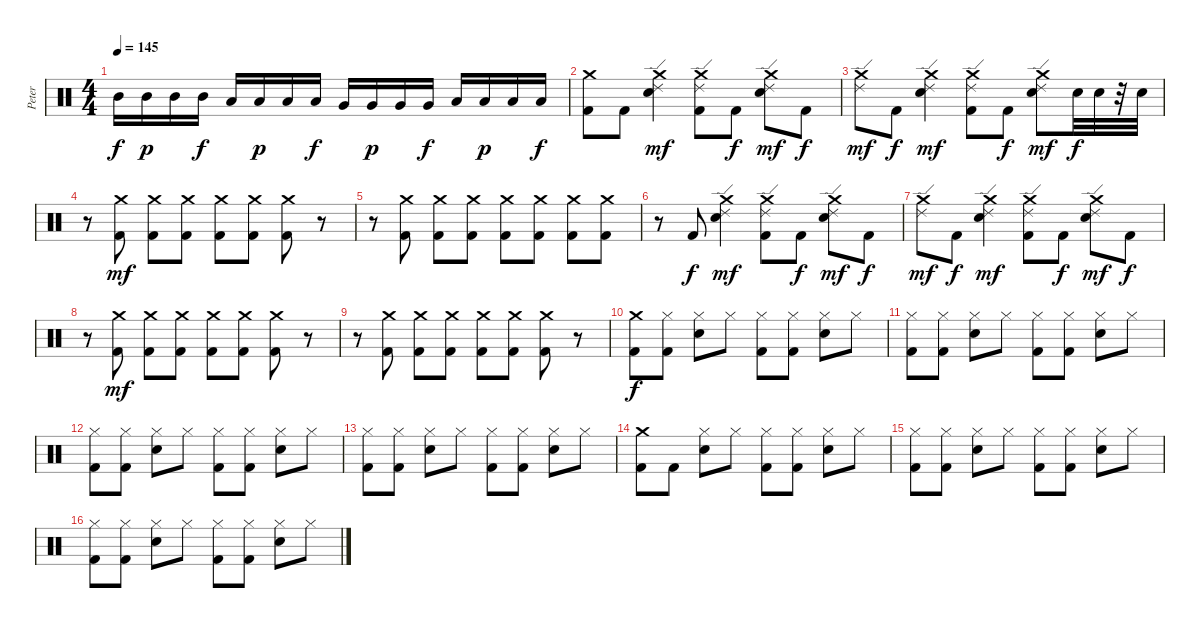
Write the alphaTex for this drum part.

\track ("Peter" "Peter") {instrument percussion}
\staff {score}
\articulation defaults
\ts (4 4)
\tempo 145
\clef neutral
\ks c "Mid Tom (hit)".16{dy f} "Mid Tom (hit)".16{dy p} "Mid Tom (hit)".16 "Mid Tom (hit)".16{dy f} "Low Tom (hit)".16 "Low Tom (hit)".16{dy p} "Low Tom (hit)".16 "Low Tom (hit)".16{dy f} "Very Low Tom (hit)".16 "Very Low Tom (hit)".16{dy p} "Very Low Tom (hit)".16 "Very Low Tom (hit)".16{dy f} "Low Floor Tom (hit)".16 "Low Floor Tom (hit)".16{dy p} "Low Floor Tom (hit)".16 "Low Floor Tom (hit)".16{dy f}
|
("Crash medium (hit)" "Kick (hit) 2").8 "Kick (hit) 2".8 ("Ride (edge) 2" "Crash medium (hit)" "Electric Snare (hit)").4{dy mf} ("Ride (edge) 2" "Crash medium (hit)" "Kick (hit) 2").8 "Kick (hit) 2".8{dy f} ("Ride (edge) 2" "Crash medium (hit)" "Electric Snare (hit)").8{dy mf} "Kick (hit) 2".8{dy f} |
("Ride (edge) 2" "Crash medium (hit)").8{dy mf} "Kick (hit) 2".8{dy f} ("Ride (edge) 2" "Crash medium (hit)" "Electric Snare (hit)").4{dy mf} ("Ride (edge) 2" "Crash medium (hit)" "Kick (hit) 2").8 "Kick (hit) 2".8{dy f} ("Ride (edge) 2" "Crash medium (hit)" "Electric Snare (hit)").8{dy mf} "Electric Snare (hit)".32{dy f} "Electric Snare (hit)".32 r.32 "Electric Snare (hit)".32 |
r.8 ("Crash medium (hit)" "Kick (hit) 2").8{dy mf} ("Crash medium (hit)" "Kick (hit) 2").8 ("Crash medium (hit)" "Kick (hit) 2").8 ("Crash medium (hit)" "Kick (hit) 2").8 ("Crash medium (hit)" "Kick (hit) 2").8 ("Crash medium (hit)" "Kick (hit) 2").8 r.8 |
r.8 ("Crash medium (hit)" "Kick (hit) 2").8 ("Crash medium (hit)" "Kick (hit) 2").8 ("Crash medium (hit)" "Kick (hit) 2").8 ("Crash medium (hit)" "Kick (hit) 2").8 ("Crash medium (hit)" "Kick (hit) 2").8 ("Crash medium (hit)" "Kick (hit) 2").8 ("Crash medium (hit)" "Kick (hit) 2").8 |
r.8 "Kick (hit) 2".8{dy f} ("Ride (edge) 2" "Crash medium (hit)" "Electric Snare (hit)").4{dy mf} ("Ride (edge) 2" "Crash medium (hit)" "Kick (hit) 2").8 "Kick (hit) 2".8{dy f} ("Ride (edge) 2" "Crash medium (hit)" "Electric Snare (hit)").8{dy mf} "Kick (hit) 2".8{dy f} |
("Ride (edge) 2" "Crash medium (hit)").8{dy mf} "Kick (hit) 2".8{dy f} ("Ride (edge) 2" "Crash medium (hit)" "Electric Snare (hit)").4{dy mf} ("Ride (edge) 2" "Crash medium (hit)" "Kick (hit) 2").8 "Kick (hit) 2".8{dy f} ("Ride (edge) 2" "Crash medium (hit)" "Electric Snare (hit)").8{dy mf} "Kick (hit) 2".8{dy f} |
r.8 ("Crash medium (hit)" "Kick (hit) 2").8{dy mf} ("Crash medium (hit)" "Kick (hit) 2").8 ("Crash medium (hit)" "Kick (hit) 2").8 ("Crash medium (hit)" "Kick (hit) 2").8 ("Crash medium (hit)" "Kick (hit) 2").8 ("Crash medium (hit)" "Kick (hit) 2").8 r.8 |
r.8 ("Crash medium (hit)" "Kick (hit) 2").8 ("Crash medium (hit)" "Kick (hit) 2").8 ("Crash medium (hit)" "Kick (hit) 2").8 ("Crash medium (hit)" "Kick (hit) 2").8 ("Crash medium (hit)" "Kick (hit) 2").8 ("Crash medium (hit)" "Kick (hit) 2").8 r.8 |
("Crash medium (hit)" "Kick (hit) 2").8{dy f} ("Hi-Hat (closed)" "Kick (hit) 2").8 ("Hi-Hat (closed)" "Electric Snare (hit)").8 "Hi-Hat (closed)".8 ("Hi-Hat (closed)" "Kick (hit) 2").8 ("Hi-Hat (closed)" "Kick (hit) 2").8 ("Hi-Hat (closed)" "Electric Snare (hit)").8 "Hi-Hat (closed)".8 |
("Hi-Hat (closed)" "Kick (hit) 2").8 ("Hi-Hat (closed)" "Kick (hit) 2").8 ("Hi-Hat (closed)" "Electric Snare (hit)").8 "Hi-Hat (closed)".8 ("Hi-Hat (closed)" "Kick (hit) 2").8 ("Hi-Hat (closed)" "Kick (hit) 2").8 ("Hi-Hat (closed)" "Electric Snare (hit)").8 "Hi-Hat (closed)".8 |
("Hi-Hat (closed)" "Kick (hit) 2").8 ("Hi-Hat (closed)" "Kick (hit) 2").8 ("Hi-Hat (closed)" "Electric Snare (hit)").8 "Hi-Hat (closed)".8 ("Hi-Hat (closed)" "Kick (hit) 2").8 ("Hi-Hat (closed)" "Kick (hit) 2").8 ("Hi-Hat (closed)" "Electric Snare (hit)").8 "Hi-Hat (closed)".8 |
("Hi-Hat (closed)" "Kick (hit) 2").8 ("Hi-Hat (closed)" "Kick (hit) 2").8 ("Hi-Hat (closed)" "Electric Snare (hit)").8 "Hi-Hat (closed)".8 ("Hi-Hat (closed)" "Kick (hit) 2").8 ("Hi-Hat (closed)" "Kick (hit) 2").8 ("Hi-Hat (closed)" "Electric Snare (hit)").8 "Hi-Hat (closed)".8 |
("Crash medium (hit)" "Kick (hit) 2").8 "Kick (hit) 2".8 ("Hi-Hat (closed)" "Electric Snare (hit)").8 "Hi-Hat (closed)".8 ("Hi-Hat (closed)" "Kick (hit) 2").8 ("Hi-Hat (closed)" "Kick (hit) 2").8 ("Hi-Hat (closed)" "Electric Snare (hit)").8 "Hi-Hat (closed)".8 |
("Hi-Hat (closed)" "Kick (hit) 2").8 ("Hi-Hat (closed)" "Kick (hit) 2").8 ("Hi-Hat (closed)" "Electric Snare (hit)").8 "Hi-Hat (closed)".8 ("Hi-Hat (closed)" "Kick (hit) 2").8 ("Hi-Hat (closed)" "Kick (hit) 2").8 ("Hi-Hat (closed)" "Electric Snare (hit)").8 "Hi-Hat (closed)".8 |
("Hi-Hat (closed)" "Kick (hit) 2").8 ("Hi-Hat (closed)" "Kick (hit) 2").8 ("Hi-Hat (closed)" "Electric Snare (hit)").8 "Hi-Hat (closed)".8 ("Hi-Hat (closed)" "Kick (hit) 2").8 ("Hi-Hat (closed)" "Kick (hit) 2").8 ("Hi-Hat (closed)" "Electric Snare (hit)").8 "Hi-Hat (closed)".8
